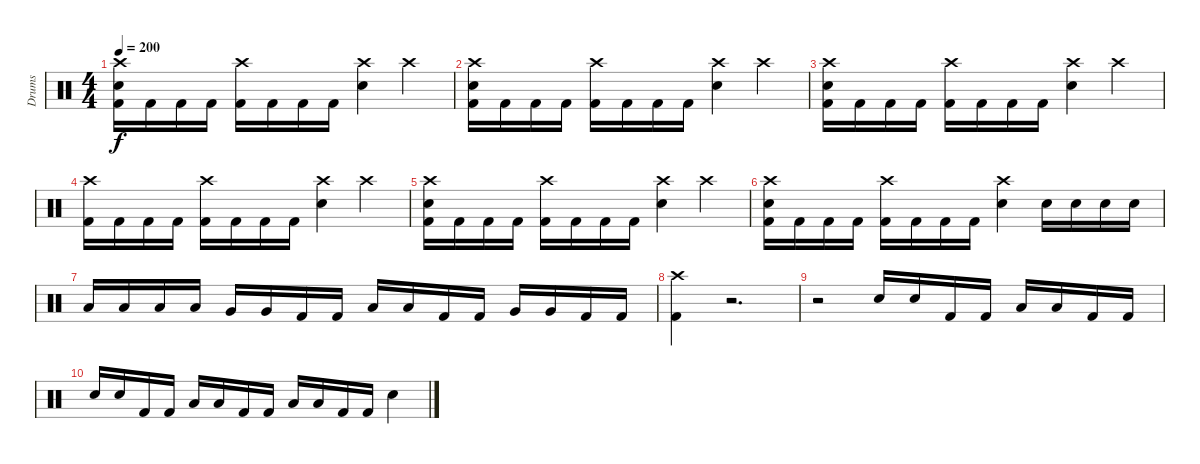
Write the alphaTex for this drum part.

\track ("Drums" "Drums") {instrument percussion}
\staff {score}
\articulation defaults
\ts (4 4)
\tempo 200
\clef neutral
\ks c
("Crash high (hit)" "Electric Snare (hit)" "Kick (hit) 2").16{dy f} "Kick (hit) 2".16 "Kick (hit) 2".16 "Kick (hit) 2".16 ("Crash high (hit)" "Kick (hit) 2").16 "Kick (hit) 2".16 "Kick (hit) 2".16 "Kick (hit) 2".16 ("Crash high (hit)" "Electric Snare (hit)").4 "Crash high (hit)".4 |
("Crash high (hit)" "Electric Snare (hit)" "Kick (hit) 2").16 "Kick (hit) 2".16 "Kick (hit) 2".16 "Kick (hit) 2".16 ("Crash high (hit)" "Kick (hit) 2").16 "Kick (hit) 2".16 "Kick (hit) 2".16 "Kick (hit) 2".16 ("Crash high (hit)" "Electric Snare (hit)").4 "Crash high (hit)".4 |
("Crash high (hit)" "Electric Snare (hit)" "Kick (hit) 2").16 "Kick (hit) 2".16 "Kick (hit) 2".16 "Kick (hit) 2".16 ("Crash high (hit)" "Kick (hit) 2").16 "Kick (hit) 2".16 "Kick (hit) 2".16 "Kick (hit) 2".16 ("Crash high (hit)" "Electric Snare (hit)").4 "Crash high (hit)".4 |
("Crash high (hit)" "Kick (hit) 2").16 "Kick (hit) 2".16 "Kick (hit) 2".16 "Kick (hit) 2".16 ("Crash high (hit)" "Kick (hit) 2").16 "Kick (hit) 2".16 "Kick (hit) 2".16 "Kick (hit) 2".16 ("Crash high (hit)" "Electric Snare (hit)").4 "Crash high (hit)".4 |
("Crash high (hit)" "Electric Snare (hit)" "Kick (hit) 2").16 "Kick (hit) 2".16 "Kick (hit) 2".16 "Kick (hit) 2".16 ("Crash high (hit)" "Kick (hit) 2").16 "Kick (hit) 2".16 "Kick (hit) 2".16 "Kick (hit) 2".16 ("Crash high (hit)" "Electric Snare (hit)").4 "Crash high (hit)".4 |
("Crash high (hit)" "Electric Snare (hit)" "Kick (hit) 2").16 "Kick (hit) 2".16 "Kick (hit) 2".16 "Kick (hit) 2".16 ("Crash high (hit)" "Kick (hit) 2").16 "Kick (hit) 2".16 "Kick (hit) 2".16 "Kick (hit) 2".16 ("Crash high (hit)" "Electric Snare (hit)").4 "Electric Snare (hit)".16 "Electric Snare (hit)".16 "Electric Snare (hit)".16 "Electric Snare (hit)".16 |
"Low Tom (hit)".16 "Low Tom (hit)".16 "Low Tom (hit)".16 "Low Tom (hit)".16 "Very Low Tom (hit)".16 "Very Low Tom (hit)".16 "Kick (hit) 2".16 "Kick (hit) 2".16 "Low Tom (hit)".16 "Low Tom (hit)".16 "Kick (hit) 2".16 "Kick (hit) 2".16 "Very Low Tom (hit)".16 "Very Low Tom (hit)".16 "Kick (hit) 2".16 "Kick (hit) 2".16 |
("Crash high (hit)" "Kick (hit) 2").4 r.2{d volume 0} |
r.2 "Electric Snare (hit)".16{volume 16} "Electric Snare (hit)".16 "Kick (hit) 2".16 "Kick (hit) 2".16 "Low Tom (hit)".16 "Low Tom (hit)".16 "Kick (hit) 2".16 "Kick (hit) 2".16 |
"Electric Snare (hit)".16 "Electric Snare (hit)".16 "Kick (hit) 2".16 "Kick (hit) 2".16 "Low Tom (hit)".16 "Low Tom (hit)".16 "Kick (hit) 2".16 "Kick (hit) 2".16 "Low Tom (hit)".16 "Low Tom (hit)".16 "Kick (hit) 2".16 "Kick (hit) 2".16 "Electric Snare (hit)".4
